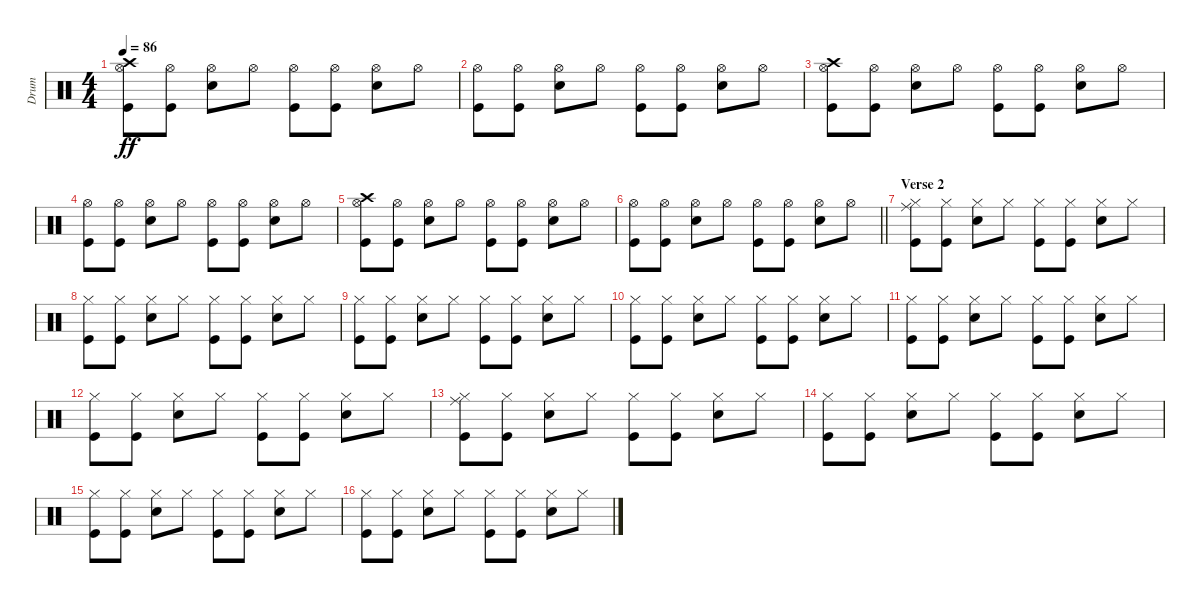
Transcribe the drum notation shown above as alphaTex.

\track ("Drum" "Drum") {instrument percussion}
\staff {score}
\articulation defaults
\ts (4 4)
\tempo 86
\clef neutral
\ks c
("Kick (hit)" "Hi-Hat (open)" "Crash high (hit)").8{dy ff} ("Kick (hit)" "Hi-Hat (open)").8 ("Hi-Hat (open)" "Electric Snare (hit)").8 "Hi-Hat (open)".8 ("Hi-Hat (open)" "Kick (hit)").8 ("Hi-Hat (open)" "Kick (hit)").8 ("Hi-Hat (open)" "Electric Snare (hit)").8 "Hi-Hat (open)".8 |
("Hi-Hat (open)" "Kick (hit)").8 ("Hi-Hat (open)" "Kick (hit)").8 ("Hi-Hat (open)" "Electric Snare (hit)").8 "Hi-Hat (open)".8 ("Hi-Hat (open)" "Kick (hit)").8 ("Hi-Hat (open)" "Kick (hit)").8 ("Hi-Hat (open)" "Electric Snare (hit)").8 "Hi-Hat (open)".8 |
("Crash high (hit)" "Kick (hit)" "Hi-Hat (open)").8 ("Hi-Hat (open)" "Kick (hit)").8 ("Electric Snare (hit)" "Hi-Hat (open)").8 "Hi-Hat (open)".8 ("Hi-Hat (open)" "Kick (hit)").8 ("Hi-Hat (open)" "Kick (hit)").8 ("Hi-Hat (open)" "Electric Snare (hit)").8 "Hi-Hat (open)".8 |
("Kick (hit)" "Hi-Hat (open)").8 ("Kick (hit)" "Hi-Hat (open)").8 ("Hi-Hat (open)" "Electric Snare (hit)").8 "Hi-Hat (open)".8 ("Hi-Hat (open)" "Kick (hit)").8 ("Hi-Hat (open)" "Kick (hit)").8 ("Electric Snare (hit)" "Hi-Hat (open)").8 "Hi-Hat (open)".8 |
("Kick (hit)" "Hi-Hat (open)" "Crash high (hit)").8 ("Kick (hit)" "Hi-Hat (open)").8 ("Hi-Hat (open)" "Electric Snare (hit)").8 "Hi-Hat (open)".8 ("Hi-Hat (open)" "Kick (hit)").8 ("Hi-Hat (open)" "Kick (hit)").8 ("Hi-Hat (open)" "Electric Snare (hit)").8 "Hi-Hat (open)".8 |
\barLineRight lightlight
("Hi-Hat (open)" "Kick (hit)").8 ("Hi-Hat (open)" "Kick (hit)").8 ("Hi-Hat (open)" "Electric Snare (hit)").8 "Hi-Hat (open)".8 ("Hi-Hat (open)" "Kick (hit)").8 ("Hi-Hat (open)" "Kick (hit)").8 ("Hi-Hat (open)" "Electric Snare (hit)").8 "Hi-Hat (open)".8 |
\section ("" "Verse 2")
("Hi-Hat (closed)" "Ride (middle)" "Kick (hit)").8 ("Hi-Hat (closed)" "Kick (hit)").8 ("Hi-Hat (closed)" "Electric Snare (hit)").8 "Hi-Hat (closed)".8 ("Hi-Hat (closed)" "Kick (hit)").8 ("Hi-Hat (closed)" "Kick (hit)").8 ("Hi-Hat (closed)" "Electric Snare (hit)").8 "Hi-Hat (closed)".8 |
("Hi-Hat (closed)" "Kick (hit)").8 ("Hi-Hat (closed)" "Kick (hit)").8 ("Hi-Hat (closed)" "Electric Snare (hit)").8 "Hi-Hat (closed)".8 ("Hi-Hat (closed)" "Kick (hit)").8 ("Hi-Hat (closed)" "Kick (hit)").8 ("Hi-Hat (closed)" "Electric Snare (hit)").8 "Hi-Hat (closed)".8 |
("Hi-Hat (closed)" "Kick (hit)").8 ("Hi-Hat (closed)" "Kick (hit)").8 ("Hi-Hat (closed)" "Electric Snare (hit)").8 "Hi-Hat (closed)".8 ("Hi-Hat (closed)" "Kick (hit)").8 ("Hi-Hat (closed)" "Kick (hit)").8 ("Hi-Hat (closed)" "Electric Snare (hit)").8 "Hi-Hat (closed)".8 |
("Hi-Hat (closed)" "Kick (hit)").8 ("Hi-Hat (closed)" "Kick (hit)").8 ("Hi-Hat (closed)" "Electric Snare (hit)").8 "Hi-Hat (closed)".8 ("Hi-Hat (closed)" "Kick (hit)").8 ("Hi-Hat (closed)" "Kick (hit)").8 ("Hi-Hat (closed)" "Electric Snare (hit)").8 "Hi-Hat (closed)".8 |
("Hi-Hat (closed)" "Kick (hit)").8 ("Hi-Hat (closed)" "Kick (hit)").8 ("Hi-Hat (closed)" "Electric Snare (hit)").8 "Hi-Hat (closed)".8 ("Hi-Hat (closed)" "Kick (hit)").8 ("Hi-Hat (closed)" "Kick (hit)").8 ("Hi-Hat (closed)" "Electric Snare (hit)").8 "Hi-Hat (closed)".8 |
("Hi-Hat (closed)" "Kick (hit)").8 ("Hi-Hat (closed)" "Kick (hit)").8 ("Hi-Hat (closed)" "Electric Snare (hit)").8 "Hi-Hat (closed)".8 ("Hi-Hat (closed)" "Kick (hit)").8 ("Hi-Hat (closed)" "Kick (hit)").8 ("Hi-Hat (closed)" "Electric Snare (hit)").8 "Hi-Hat (closed)".8 |
("Hi-Hat (closed)" "Ride (middle)" "Kick (hit)").8 ("Hi-Hat (closed)" "Kick (hit)").8 ("Hi-Hat (closed)" "Electric Snare (hit)").8 "Hi-Hat (closed)".8 ("Hi-Hat (closed)" "Kick (hit)").8 ("Hi-Hat (closed)" "Kick (hit)").8 ("Hi-Hat (closed)" "Electric Snare (hit)").8 "Hi-Hat (closed)".8 |
("Hi-Hat (closed)" "Kick (hit)").8 ("Hi-Hat (closed)" "Kick (hit)").8 ("Hi-Hat (closed)" "Electric Snare (hit)").8 "Hi-Hat (closed)".8 ("Hi-Hat (closed)" "Kick (hit)").8 ("Hi-Hat (closed)" "Kick (hit)").8 ("Hi-Hat (closed)" "Electric Snare (hit)").8 "Hi-Hat (closed)".8 |
("Hi-Hat (closed)" "Kick (hit)").8 ("Hi-Hat (closed)" "Kick (hit)").8 ("Hi-Hat (closed)" "Electric Snare (hit)").8 "Hi-Hat (closed)".8 ("Hi-Hat (closed)" "Kick (hit)").8 ("Hi-Hat (closed)" "Kick (hit)").8 ("Hi-Hat (closed)" "Electric Snare (hit)").8 "Hi-Hat (closed)".8 |
("Hi-Hat (closed)" "Kick (hit)").8 ("Hi-Hat (closed)" "Kick (hit)").8 ("Hi-Hat (closed)" "Electric Snare (hit)").8 "Hi-Hat (closed)".8 ("Hi-Hat (closed)" "Kick (hit)").8 ("Hi-Hat (closed)" "Kick (hit)").8 ("Hi-Hat (closed)" "Electric Snare (hit)").8 "Hi-Hat (closed)".8
